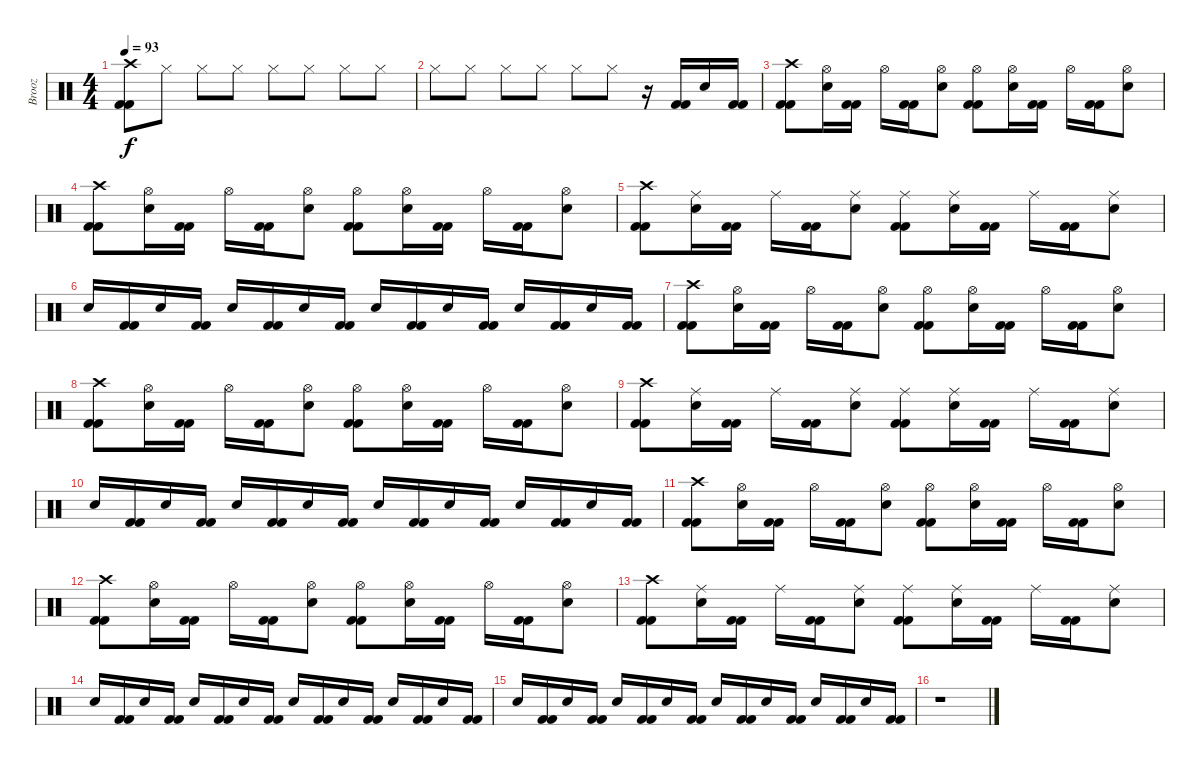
\track ("Brooz" "Brooz") {instrument percussion}
\staff {score}
\articulation defaults
\ts (4 4)
\tempo 93
\clef neutral
\ks c
("Crash high (hit)" "Kick (hit) 2" "Kick (hit) 2").8{dy f} "Hi-Hat (closed)".8 "Hi-Hat (closed)".8 "Hi-Hat (closed)".8 "Hi-Hat (closed)".8 "Hi-Hat (closed)".8 "Hi-Hat (closed)".8 "Hi-Hat (closed)".8 |
"Hi-Hat (closed)".8 "Hi-Hat (closed)".8 "Hi-Hat (closed)".8 "Hi-Hat (closed)".8 "Hi-Hat (closed)".8 "Hi-Hat (closed)".8 r.16 ("Kick (hit) 2" "Kick (hit) 2").16 "Electric Snare (hit)".16 ("Kick (hit) 2" "Kick (hit) 2").16 |
("Kick (hit) 2" "Crash high (hit)" "Kick (hit) 2").8 ("Hi-Hat (open)" "Electric Snare (hit)").16 ("Kick (hit) 2" "Kick (hit) 2").16 "Hi-Hat (open)".16 ("Kick (hit) 2" "Kick (hit) 2").16 ("Hi-Hat (open)" "Electric Snare (hit)").8 ("Kick (hit) 2" "Hi-Hat (open)" "Kick (hit) 2").8 ("Hi-Hat (open)" "Electric Snare (hit)").16 ("Kick (hit) 2" "Kick (hit) 2").16 "Hi-Hat (open)".16 ("Kick (hit) 2" "Kick (hit) 2").16 ("Hi-Hat (open)" "Electric Snare (hit)").8 |
("Kick (hit) 2" "Crash high (hit)" "Kick (hit) 2").8 ("Hi-Hat (open)" "Electric Snare (hit)").16 ("Kick (hit) 2" "Kick (hit) 2").16 "Hi-Hat (open)".16 ("Kick (hit) 2" "Kick (hit) 2").16 ("Hi-Hat (open)" "Electric Snare (hit)").8 ("Kick (hit) 2" "Hi-Hat (open)" "Kick (hit) 2").8 ("Hi-Hat (open)" "Electric Snare (hit)").16 ("Kick (hit) 2" "Kick (hit) 2").16 "Hi-Hat (open)".16 ("Kick (hit) 2" "Kick (hit) 2").16 ("Hi-Hat (open)" "Electric Snare (hit)").8 |
("Kick (hit) 2" "Crash high (hit)" "Kick (hit) 2").8 ("Ride (middle)" "Electric Snare (hit)").16 ("Kick (hit) 2" "Kick (hit) 2").16 "Ride (middle)".16 ("Kick (hit) 2" "Kick (hit) 2").16 ("Ride (middle)" "Electric Snare (hit)").8 ("Kick (hit) 2" "Ride (middle)" "Kick (hit) 2").8 ("Ride (middle)" "Electric Snare (hit)").16 ("Kick (hit) 2" "Kick (hit) 2").16 "Ride (middle)".16 ("Kick (hit) 2" "Kick (hit) 2").16 ("Ride (middle)" "Electric Snare (hit)").8 |
"Electric Snare (hit)".16 ("Kick (hit) 2" "Kick (hit) 2").16 "Electric Snare (hit)".16 ("Kick (hit) 2" "Kick (hit) 2").16 "Electric Snare (hit)".16 ("Kick (hit) 2" "Kick (hit) 2").16 "Electric Snare (hit)".16 ("Kick (hit) 2" "Kick (hit) 2").16 "Electric Snare (hit)".16 ("Kick (hit) 2" "Kick (hit) 2").16 "Electric Snare (hit)".16 ("Kick (hit) 2" "Kick (hit) 2").16 "Electric Snare (hit)".16 ("Kick (hit) 2" "Kick (hit) 2").16 "Electric Snare (hit)".16 ("Kick (hit) 2" "Kick (hit) 2").16 |
("Kick (hit) 2" "Crash high (hit)" "Kick (hit) 2").8 ("Hi-Hat (open)" "Electric Snare (hit)").16 ("Kick (hit) 2" "Kick (hit) 2").16 "Hi-Hat (open)".16 ("Kick (hit) 2" "Kick (hit) 2").16 ("Hi-Hat (open)" "Electric Snare (hit)").8 ("Kick (hit) 2" "Hi-Hat (open)" "Kick (hit) 2").8 ("Hi-Hat (open)" "Electric Snare (hit)").16 ("Kick (hit) 2" "Kick (hit) 2").16 "Hi-Hat (open)".16 ("Kick (hit) 2" "Kick (hit) 2").16 ("Hi-Hat (open)" "Electric Snare (hit)").8 |
("Kick (hit) 2" "Crash high (hit)" "Kick (hit) 2").8 ("Hi-Hat (open)" "Electric Snare (hit)").16 ("Kick (hit) 2" "Kick (hit) 2").16 "Hi-Hat (open)".16 ("Kick (hit) 2" "Kick (hit) 2").16 ("Hi-Hat (open)" "Electric Snare (hit)").8 ("Kick (hit) 2" "Hi-Hat (open)" "Kick (hit) 2").8 ("Hi-Hat (open)" "Electric Snare (hit)").16 ("Kick (hit) 2" "Kick (hit) 2").16 "Hi-Hat (open)".16 ("Kick (hit) 2" "Kick (hit) 2").16 ("Hi-Hat (open)" "Electric Snare (hit)").8 |
("Kick (hit) 2" "Crash high (hit)" "Kick (hit) 2").8 ("Ride (middle)" "Electric Snare (hit)").16 ("Kick (hit) 2" "Kick (hit) 2").16 "Ride (middle)".16 ("Kick (hit) 2" "Kick (hit) 2").16 ("Ride (middle)" "Electric Snare (hit)").8 ("Kick (hit) 2" "Ride (middle)" "Kick (hit) 2").8 ("Ride (middle)" "Electric Snare (hit)").16 ("Kick (hit) 2" "Kick (hit) 2").16 "Ride (middle)".16 ("Kick (hit) 2" "Kick (hit) 2").16 ("Ride (middle)" "Electric Snare (hit)").8 |
"Electric Snare (hit)".16 ("Kick (hit) 2" "Kick (hit) 2").16 "Electric Snare (hit)".16 ("Kick (hit) 2" "Kick (hit) 2").16 "Electric Snare (hit)".16 ("Kick (hit) 2" "Kick (hit) 2").16 "Electric Snare (hit)".16 ("Kick (hit) 2" "Kick (hit) 2").16 "Electric Snare (hit)".16 ("Kick (hit) 2" "Kick (hit) 2").16 "Electric Snare (hit)".16 ("Kick (hit) 2" "Kick (hit) 2").16 "Electric Snare (hit)".16 ("Kick (hit) 2" "Kick (hit) 2").16 "Electric Snare (hit)".16 ("Kick (hit) 2" "Kick (hit) 2").16 |
("Kick (hit) 2" "Crash high (hit)" "Kick (hit) 2").8 ("Hi-Hat (open)" "Electric Snare (hit)").16 ("Kick (hit) 2" "Kick (hit) 2").16 "Hi-Hat (open)".16 ("Kick (hit) 2" "Kick (hit) 2").16 ("Hi-Hat (open)" "Electric Snare (hit)").8 ("Kick (hit) 2" "Hi-Hat (open)" "Kick (hit) 2").8 ("Hi-Hat (open)" "Electric Snare (hit)").16 ("Kick (hit) 2" "Kick (hit) 2").16 "Hi-Hat (open)".16 ("Kick (hit) 2" "Kick (hit) 2").16 ("Hi-Hat (open)" "Electric Snare (hit)").8 |
("Kick (hit) 2" "Crash high (hit)" "Kick (hit) 2").8 ("Hi-Hat (open)" "Electric Snare (hit)").16 ("Kick (hit) 2" "Kick (hit) 2").16 "Hi-Hat (open)".16 ("Kick (hit) 2" "Kick (hit) 2").16 ("Hi-Hat (open)" "Electric Snare (hit)").8 ("Kick (hit) 2" "Hi-Hat (open)" "Kick (hit) 2").8 ("Hi-Hat (open)" "Electric Snare (hit)").16 ("Kick (hit) 2" "Kick (hit) 2").16 "Hi-Hat (open)".16 ("Kick (hit) 2" "Kick (hit) 2").16 ("Hi-Hat (open)" "Electric Snare (hit)").8 |
("Kick (hit) 2" "Crash high (hit)" "Kick (hit) 2").8 ("Ride (middle)" "Electric Snare (hit)").16 ("Kick (hit) 2" "Kick (hit) 2").16 "Ride (middle)".16 ("Kick (hit) 2" "Kick (hit) 2").16 ("Ride (middle)" "Electric Snare (hit)").8 ("Kick (hit) 2" "Ride (middle)" "Kick (hit) 2").8 ("Ride (middle)" "Electric Snare (hit)").16 ("Kick (hit) 2" "Kick (hit) 2").16 "Ride (middle)".16 ("Kick (hit) 2" "Kick (hit) 2").16 ("Ride (middle)" "Electric Snare (hit)").8 |
"Electric Snare (hit)".16 ("Kick (hit) 2" "Kick (hit) 2").16 "Electric Snare (hit)".16 ("Kick (hit) 2" "Kick (hit) 2").16 "Electric Snare (hit)".16 ("Kick (hit) 2" "Kick (hit) 2").16 "Electric Snare (hit)".16 ("Kick (hit) 2" "Kick (hit) 2").16 "Electric Snare (hit)".16 ("Kick (hit) 2" "Kick (hit) 2").16 "Electric Snare (hit)".16 ("Kick (hit) 2" "Kick (hit) 2").16 "Electric Snare (hit)".16 ("Kick (hit) 2" "Kick (hit) 2").16 "Electric Snare (hit)".16 ("Kick (hit) 2" "Kick (hit) 2").16 |
"Electric Snare (hit)".16 ("Kick (hit) 2" "Kick (hit) 2").16 "Electric Snare (hit)".16 ("Kick (hit) 2" "Kick (hit) 2").16 "Electric Snare (hit)".16 ("Kick (hit) 2" "Kick (hit) 2").16 "Electric Snare (hit)".16 ("Kick (hit) 2" "Kick (hit) 2").16 "Electric Snare (hit)".16 ("Kick (hit) 2" "Kick (hit) 2").16 "Electric Snare (hit)".16 ("Kick (hit) 2" "Kick (hit) 2").16 "Electric Snare (hit)".16 ("Kick (hit) 2" "Kick (hit) 2").16 "Electric Snare (hit)".16 ("Kick (hit) 2" "Kick (hit) 2").16 |
r.1
